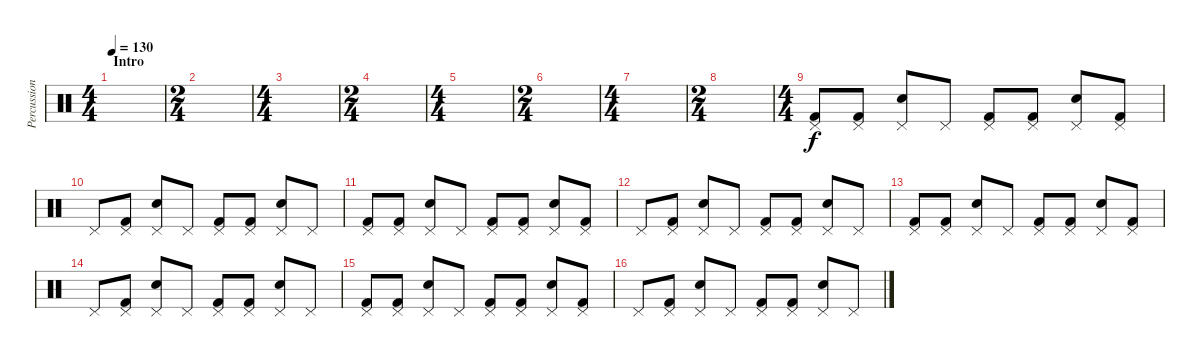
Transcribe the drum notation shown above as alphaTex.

\track ("Percussions" "Percussion") {instrument percussion}
\staff {score}
\articulation defaults
\ts (4 4)
\section ("" "Intro")
\tempo 130
\clef neutral
\ks c
|
\ts (2 4)
|
\ts (4 4)
|
\ts (2 4)
|
\ts (4 4)
|
\ts (2 4)
|
\ts (4 4)
|
\ts (2 4)
|
\ts (4 4)
("Pedal Hi-Hat (hit)" "Kick (hit) 2").8 ("Pedal Hi-Hat (hit)" "Kick (hit) 2").8 ("Pedal Hi-Hat (hit)" "Electric Snare (hit)").8 "Pedal Hi-Hat (hit)".8 ("Pedal Hi-Hat (hit)" "Kick (hit) 2").8 ("Pedal Hi-Hat (hit)" "Kick (hit) 2").8 ("Pedal Hi-Hat (hit)" "Electric Snare (hit)").8 ("Pedal Hi-Hat (hit)" "Kick (hit) 2").8 |
"Pedal Hi-Hat (hit)".8 ("Pedal Hi-Hat (hit)" "Kick (hit) 2").8 ("Pedal Hi-Hat (hit)" "Electric Snare (hit)").8 "Pedal Hi-Hat (hit)".8 ("Pedal Hi-Hat (hit)" "Kick (hit) 2").8 ("Pedal Hi-Hat (hit)" "Kick (hit) 2").8 ("Pedal Hi-Hat (hit)" "Electric Snare (hit)").8 "Pedal Hi-Hat (hit)".8 |
("Pedal Hi-Hat (hit)" "Kick (hit) 2").8 ("Pedal Hi-Hat (hit)" "Kick (hit) 2").8 ("Pedal Hi-Hat (hit)" "Electric Snare (hit)").8 "Pedal Hi-Hat (hit)".8 ("Pedal Hi-Hat (hit)" "Kick (hit) 2").8 ("Pedal Hi-Hat (hit)" "Kick (hit) 2").8 ("Pedal Hi-Hat (hit)" "Electric Snare (hit)").8 ("Pedal Hi-Hat (hit)" "Kick (hit) 2").8 |
"Pedal Hi-Hat (hit)".8 ("Pedal Hi-Hat (hit)" "Kick (hit) 2").8 ("Pedal Hi-Hat (hit)" "Electric Snare (hit)").8 "Pedal Hi-Hat (hit)".8 ("Pedal Hi-Hat (hit)" "Kick (hit) 2").8 ("Pedal Hi-Hat (hit)" "Kick (hit) 2").8 ("Pedal Hi-Hat (hit)" "Electric Snare (hit)").8 "Pedal Hi-Hat (hit)".8 |
("Pedal Hi-Hat (hit)" "Kick (hit) 2").8 ("Pedal Hi-Hat (hit)" "Kick (hit) 2").8 ("Pedal Hi-Hat (hit)" "Electric Snare (hit)").8 "Pedal Hi-Hat (hit)".8 ("Pedal Hi-Hat (hit)" "Kick (hit) 2").8 ("Pedal Hi-Hat (hit)" "Kick (hit) 2").8 ("Pedal Hi-Hat (hit)" "Electric Snare (hit)").8 ("Pedal Hi-Hat (hit)" "Kick (hit) 2").8 |
"Pedal Hi-Hat (hit)".8 ("Pedal Hi-Hat (hit)" "Kick (hit) 2").8 ("Pedal Hi-Hat (hit)" "Electric Snare (hit)").8 "Pedal Hi-Hat (hit)".8 ("Pedal Hi-Hat (hit)" "Kick (hit) 2").8 ("Pedal Hi-Hat (hit)" "Kick (hit) 2").8 ("Pedal Hi-Hat (hit)" "Electric Snare (hit)").8 "Pedal Hi-Hat (hit)".8 |
("Pedal Hi-Hat (hit)" "Kick (hit) 2").8 ("Pedal Hi-Hat (hit)" "Kick (hit) 2").8 ("Pedal Hi-Hat (hit)" "Electric Snare (hit)").8 "Pedal Hi-Hat (hit)".8 ("Pedal Hi-Hat (hit)" "Kick (hit) 2").8 ("Pedal Hi-Hat (hit)" "Kick (hit) 2").8 ("Pedal Hi-Hat (hit)" "Electric Snare (hit)").8 ("Pedal Hi-Hat (hit)" "Kick (hit) 2").8 |
"Pedal Hi-Hat (hit)".8 ("Pedal Hi-Hat (hit)" "Kick (hit) 2").8 ("Pedal Hi-Hat (hit)" "Electric Snare (hit)").8 "Pedal Hi-Hat (hit)".8 ("Pedal Hi-Hat (hit)" "Kick (hit) 2").8 ("Pedal Hi-Hat (hit)" "Kick (hit) 2").8 ("Pedal Hi-Hat (hit)" "Electric Snare (hit)").8 "Pedal Hi-Hat (hit)".8
